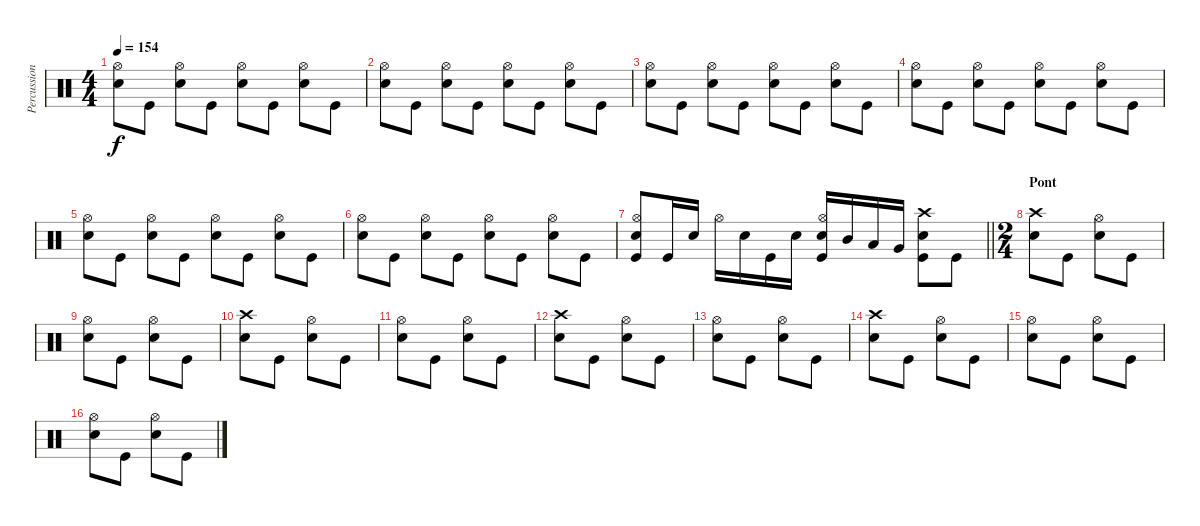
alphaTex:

\track ("Percussions" "Percussion") {instrument percussion}
\staff {score}
\articulation defaults
\ts (4 4)
\tempo 154
\clef neutral
\ks c
("Snare (hit) 2" "Hi-Hat (open)").8{dy f} "Kick (hit)".8 ("Snare (hit) 2" "Hi-Hat (open)").8 "Kick (hit)".8 ("Snare (hit) 2" "Hi-Hat (open)").8 "Kick (hit)".8 ("Snare (hit) 2" "Hi-Hat (open)").8 "Kick (hit)".8 |
("Snare (hit) 2" "Hi-Hat (open)").8 "Kick (hit)".8 ("Snare (hit) 2" "Hi-Hat (open)").8 "Kick (hit)".8 ("Snare (hit) 2" "Hi-Hat (open)").8 "Kick (hit)".8 ("Snare (hit) 2" "Hi-Hat (open)").8 "Kick (hit)".8 |
("Snare (hit) 2" "Hi-Hat (open)").8 "Kick (hit)".8 ("Snare (hit) 2" "Hi-Hat (open)").8 "Kick (hit)".8 ("Snare (hit) 2" "Hi-Hat (open)").8 "Kick (hit)".8 ("Snare (hit) 2" "Hi-Hat (open)").8 "Kick (hit)".8 |
("Snare (hit) 2" "Hi-Hat (open)").8 "Kick (hit)".8 ("Snare (hit) 2" "Hi-Hat (open)").8 "Kick (hit)".8 ("Snare (hit) 2" "Hi-Hat (open)").8 "Kick (hit)".8 ("Snare (hit) 2" "Hi-Hat (open)").8 "Kick (hit)".8 |
("Snare (hit) 2" "Hi-Hat (open)").8 "Kick (hit)".8 ("Snare (hit) 2" "Hi-Hat (open)").8 "Kick (hit)".8 ("Snare (hit) 2" "Hi-Hat (open)").8 "Kick (hit)".8 ("Snare (hit) 2" "Hi-Hat (open)").8 "Kick (hit)".8 |
("Snare (hit) 2" "Hi-Hat (open)").8 "Kick (hit)".8 ("Snare (hit) 2" "Hi-Hat (open)").8 "Kick (hit)".8 ("Snare (hit) 2" "Hi-Hat (open)").8 "Kick (hit)".8 ("Snare (hit) 2" "Hi-Hat (open)").8 "Kick (hit)".8 |
\barLineRight lightlight
("Snare (hit) 2" "Hi-Hat (open)" "Kick (hit)").8 "Kick (hit)".16 "Snare (hit) 2".16 "Hi-Hat (open)".16 "Snare (hit) 2".16 "Kick (hit)".16 "Snare (hit) 2".16 ("Snare (hit) 2" "Kick (hit)" "Hi-Hat (open)").16 "Mid Tom (hit)".16 "Low Tom (hit)".16 "Very Low Tom (hit)".16 ("Snare (hit) 2" "Kick (hit)" "Crash high (hit)").8 "Kick (hit)".8 |
\ts (2 4)
\section ("" "Pont")
("Snare (hit) 2" "Crash high (hit)").8 "Kick (hit)".8 ("Snare (hit) 2" "Hi-Hat (open)").8 "Kick (hit)".8 |
("Snare (hit) 2" "Hi-Hat (open)").8 "Kick (hit)".8 ("Snare (hit) 2" "Hi-Hat (open)").8 "Kick (hit)".8 |
("Snare (hit) 2" "Crash high (hit)").8 "Kick (hit)".8 ("Snare (hit) 2" "Hi-Hat (open)").8 "Kick (hit)".8 |
("Snare (hit) 2" "Hi-Hat (open)").8 "Kick (hit)".8 ("Snare (hit) 2" "Hi-Hat (open)").8 "Kick (hit)".8 |
("Snare (hit) 2" "Crash high (hit)").8 "Kick (hit)".8 ("Snare (hit) 2" "Hi-Hat (open)").8 "Kick (hit)".8 |
("Snare (hit) 2" "Hi-Hat (open)").8 "Kick (hit)".8 ("Snare (hit) 2" "Hi-Hat (open)").8 "Kick (hit)".8 |
("Snare (hit) 2" "Crash high (hit)").8 "Kick (hit)".8 ("Snare (hit) 2" "Hi-Hat (open)").8 "Kick (hit)".8 |
("Snare (hit) 2" "Hi-Hat (open)").8 "Kick (hit)".8 ("Snare (hit) 2" "Hi-Hat (open)").8 "Kick (hit)".8 |
("Snare (hit) 2" "Hi-Hat (open)").8 "Kick (hit)".8 ("Snare (hit) 2" "Hi-Hat (open)").8 "Kick (hit)".8
